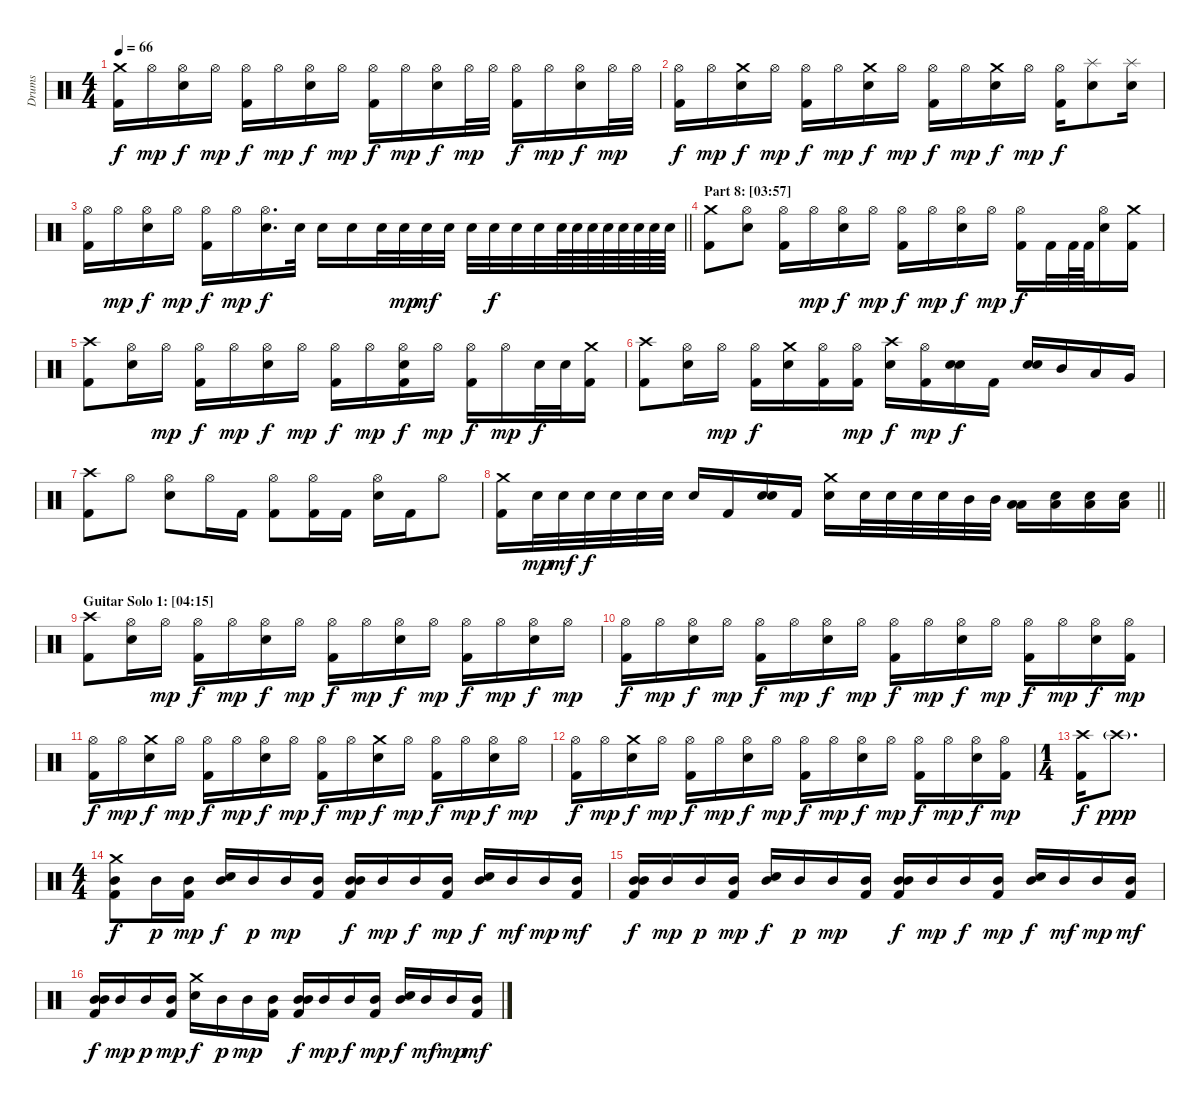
\track ("Drums" "Drums") {instrument percussion}
\staff {score}
\articulation defaults
\ts (4 4)
\tempo 66
\clef neutral
\ks c
("Crash medium (hit)" "Kick (hit) 2").16{dy f} "Hi-Hat (open)".16{dy mp} ("Hi-Hat (open)" "Electric Snare (hit)").16{dy f} "Hi-Hat (open)".16{dy mp} ("Hi-Hat (open)" "Kick (hit) 2").16{dy f} "Hi-Hat (open)".16{dy mp} ("Hi-Hat (open)" "Electric Snare (hit)").16{dy f} "Hi-Hat (open)".16{dy mp} ("Hi-Hat (open)" "Kick (hit) 2").16{dy f} "Hi-Hat (open)".16{dy mp} ("Hi-Hat (open)" "Electric Snare (hit)").16{dy f} "Hi-Hat (open)".32{dy mp} "Hi-Hat (open)".32 ("Hi-Hat (open)" "Kick (hit) 2").16{dy f} "Hi-Hat (open)".16{dy mp} ("Hi-Hat (open)" "Electric Snare (hit)").16{dy f} "Hi-Hat (open)".32{dy mp} "Hi-Hat (open)".32 |
("Hi-Hat (open)" "Kick (hit) 2").16{dy f} "Hi-Hat (open)".16{dy mp} ("Crash medium (hit)" "Electric Snare (hit)").16{dy f} "Hi-Hat (open)".16{dy mp} ("Hi-Hat (open)" "Kick (hit) 2").16{dy f} "Hi-Hat (open)".16{dy mp} ("Crash medium (hit)" "Electric Snare (hit)").16{dy f} "Hi-Hat (open)".16{dy mp} ("Hi-Hat (open)" "Kick (hit) 2").16{dy f} "Hi-Hat (open)".16{dy mp} ("Crash medium (hit)" "Electric Snare (hit)").16{dy f} "Hi-Hat (open)".16{dy mp} ("Hi-Hat (open)" "Kick (hit) 2").16{dy f} ("Splash (hit)" "Electric Snare (hit)").8 ("Splash (hit)" "Electric Snare (hit)").16 |
\barLineRight lightlight
("Hi-Hat (open)" "Kick (hit) 2").16 "Hi-Hat (open)".16{dy mp} ("Hi-Hat (open)" "Electric Snare (hit)").16{dy f} "Hi-Hat (open)".16{dy mp} ("Hi-Hat (open)" "Kick (hit) 2").16{dy f} "Hi-Hat (open)".16{dy mp} ("Hi-Hat (open)" "Electric Snare (hit)").16{d dy f} "Electric Snare (hit)".32 "Electric Snare (hit)".16 "Electric Snare (hit)".16 "Electric Snare (hit)".32 "Electric Snare (hit)".32{dy mp} "Electric Snare (hit)".32{dy mf} "Electric Snare (hit)".32 "Electric Snare (hit)".32 "Electric Snare (hit)".32{dy f} "Electric Snare (hit)".32 "Electric Snare (hit)".32 "Electric Snare (hit)".64 "Electric Snare (hit)".64 "Electric Snare (hit)".64 "Electric Snare (hit)".64 "Electric Snare (hit)".64 "Electric Snare (hit)".64 "Electric Snare (hit)".64 "Electric Snare (hit)".64 |
\section ("" "Part 8: [03:57]")
("Crash medium (hit)" "Kick (hit) 2").8 ("Hi-Hat (open)" "Electric Snare (hit)").8 ("Hi-Hat (open)" "Kick (hit) 2").16 "Hi-Hat (open)".16{dy mp} ("Hi-Hat (open)" "Electric Snare (hit)").16{dy f} "Hi-Hat (open)".16{dy mp} ("Hi-Hat (open)" "Kick (hit) 2").16{dy f} "Hi-Hat (open)".16{dy mp} ("Hi-Hat (open)" "Electric Snare (hit)").16{dy f} "Hi-Hat (open)".16{dy mp} ("Hi-Hat (open)" "Kick (hit) 2").16{dy f} "Kick (hit) 2".32 "Kick (hit) 2".64 "Kick (hit) 2".64 ("Hi-Hat (open)" "Electric Snare (hit)").16 ("Crash medium (hit)" "Kick (hit) 2").16 |
("Crash high (hit)" "Kick (hit) 2").8 ("Hi-Hat (open)" "Electric Snare (hit)").16 "Hi-Hat (open)".16{dy mp} ("Hi-Hat (open)" "Kick (hit) 2").16{dy f} "Hi-Hat (open)".16{dy mp} ("Hi-Hat (open)" "Electric Snare (hit)").16{dy f} "Hi-Hat (open)".16{dy mp} ("Hi-Hat (open)" "Kick (hit) 2").16{dy f} "Hi-Hat (open)".16{dy mp} ("Hi-Hat (open)" "Electric Snare (hit)" "Kick (hit) 2").16{dy f} "Hi-Hat (open)".16{dy mp} ("Hi-Hat (open)" "Kick (hit) 2").16{dy f} "Hi-Hat (open)".16{dy mp} "Electric Snare (hit)".32{dy f} "Electric Snare (hit)".32 ("Crash medium (hit)" "Kick (hit) 2").16 |
("Crash high (hit)" "Kick (hit) 2").8 ("Hi-Hat (open)" "Electric Snare (hit)").16 "Hi-Hat (open)".16{dy mp} ("Hi-Hat (open)" "Kick (hit) 2").16{dy f} ("Crash medium (hit)" "Electric Snare (hit)").16 ("Hi-Hat (open)" "Kick (hit) 2").16 ("Hi-Hat (open)" "Kick (hit) 2").16{dy mp} ("Crash high (hit)" "Electric Snare (hit)").16{dy f} ("Hi-Hat (open)" "Kick (hit) 2").16{dy mp} ("Electric Snare (hit)" "Electric Snare (hit)").16{bd 120 dy f} "Kick (hit) 2".16 ("Electric Snare (hit)" "Electric Snare (hit)").16{bd 120} "Mid Tom (hit)".16 "Low Tom (hit)".16 "Very Low Tom (hit)".16 |
("Crash high (hit)" "Kick (hit) 2").8 "Hi-Hat (open)".8 ("Hi-Hat (open)" "Electric Snare (hit)").8 "Hi-Hat (open)".16 "Kick (hit) 2".16 ("Hi-Hat (open)" "Kick (hit) 2").8 ("Hi-Hat (open)" "Kick (hit) 2").16 "Kick (hit) 2".16 ("Hi-Hat (open)" "Electric Snare (hit)").16 "Kick (hit) 2".16 "Hi-Hat (open)".8 |
\barLineRight lightlight
("Crash medium (hit)" "Kick (hit) 2").16 "Electric Snare (hit)".32{dy mp} "Electric Snare (hit)".32{dy mf} "Electric Snare (hit)".32{dy f} "Electric Snare (hit)".32 "Electric Snare (hit)".32 "Electric Snare (hit)".32 "Electric Snare (hit)".16 "Kick (hit) 2".16 ("Electric Snare (hit)" "Electric Snare (hit)").16{bd 120} "Kick (hit) 2".16 ("Crash medium (hit)" "Electric Snare (hit)").16 "Electric Snare (hit)".32 "Electric Snare (hit)".32 "Electric Snare (hit)".32 "Electric Snare (hit)".32 "Mid Tom (hit)".32 "Mid Tom (hit)".32 ("Low Tom (hit)" "Low Tom (hit)").16 ("Electric Snare (hit)" "Low Floor Tom (hit)").16 ("Electric Snare (hit)" "Low Floor Tom (hit)").16 ("Electric Snare (hit)" "Low Floor Tom (hit)").16 |
\section ("" "Guitar Solo 1: [04:15]")
("Crash high (hit)" "Kick (hit) 2").8 ("Hi-Hat (open)" "Electric Snare (hit)").16 "Hi-Hat (open)".16{dy mp} ("Hi-Hat (open)" "Kick (hit) 2").16{dy f} "Hi-Hat (open)".16{dy mp} ("Hi-Hat (open)" "Electric Snare (hit)").16{dy f} "Hi-Hat (open)".16{dy mp} ("Hi-Hat (open)" "Kick (hit) 2").16{dy f} "Hi-Hat (open)".16{dy mp} ("Hi-Hat (open)" "Electric Snare (hit)").16{dy f} "Hi-Hat (open)".16{dy mp} ("Hi-Hat (open)" "Kick (hit) 2").16{dy f} "Hi-Hat (open)".16{dy mp} ("Hi-Hat (open)" "Electric Snare (hit)").16{dy f} "Hi-Hat (open)".16{dy mp} |
("Hi-Hat (open)" "Kick (hit) 2").16{dy f} "Hi-Hat (open)".16{dy mp} ("Hi-Hat (open)" "Electric Snare (hit)").16{dy f} "Hi-Hat (open)".16{dy mp} ("Hi-Hat (open)" "Kick (hit) 2").16{dy f} "Hi-Hat (open)".16{dy mp} ("Hi-Hat (open)" "Electric Snare (hit)").16{dy f} "Hi-Hat (open)".16{dy mp} ("Hi-Hat (open)" "Kick (hit) 2").16{dy f} "Hi-Hat (open)".16{dy mp} ("Hi-Hat (open)" "Electric Snare (hit)").16{dy f} "Hi-Hat (open)".16{dy mp} ("Hi-Hat (open)" "Kick (hit) 2").16{dy f} "Hi-Hat (open)".16{dy mp} ("Hi-Hat (open)" "Electric Snare (hit)").16{dy f} ("Hi-Hat (open)" "Kick (hit) 2").16{dy mp} |
("Hi-Hat (open)" "Kick (hit) 2").16{dy f} "Hi-Hat (open)".16{dy mp} ("Crash medium (hit)" "Electric Snare (hit)").16{dy f} "Hi-Hat (open)".16{dy mp} ("Hi-Hat (open)" "Kick (hit) 2").16{dy f} "Hi-Hat (open)".16{dy mp} ("Hi-Hat (open)" "Electric Snare (hit)").16{dy f} "Hi-Hat (open)".16{dy mp} ("Hi-Hat (open)" "Kick (hit) 2").16{dy f} "Hi-Hat (open)".16{dy mp} ("Crash medium (hit)" "Electric Snare (hit)").16{dy f} "Hi-Hat (open)".16{dy mp} ("Hi-Hat (open)" "Kick (hit) 2").16{dy f} "Hi-Hat (open)".16{dy mp} ("Hi-Hat (open)" "Electric Snare (hit)").16{dy f} "Hi-Hat (open)".16{dy mp} |
("Hi-Hat (open)" "Kick (hit) 2").16{dy f} "Hi-Hat (open)".16{dy mp} ("Crash medium (hit)" "Electric Snare (hit)").16{dy f} "Hi-Hat (open)".16{dy mp} ("Hi-Hat (open)" "Kick (hit) 2").16{dy f} "Hi-Hat (open)".16{dy mp} ("Hi-Hat (open)" "Electric Snare (hit)").16{dy f} "Hi-Hat (open)".16{dy mp} ("Hi-Hat (open)" "Kick (hit) 2").16{dy f} "Hi-Hat (open)".16{dy mp} ("Hi-Hat (open)" "Electric Snare (hit)").16{dy f} "Hi-Hat (open)".16{dy mp} ("Hi-Hat (open)" "Kick (hit) 2").16{dy f} "Hi-Hat (open)".16{dy mp} ("Hi-Hat (open)" "Electric Snare (hit)").16{dy f} ("Hi-Hat (open)" "Kick (hit) 2").16{dy mp} |
\ts (1 4)
("Crash high (hit)" "Kick (hit) 2").16{dy f} "Crash high (hit)"{g}.8{d dy ppp} |
\ts (4 4)
("Crash medium (hit)" "Mid Tom (hit)" "Kick (hit) 2").8{dy f} "Mid Tom (hit)".16{dy p} ("Mid Tom (hit)" "Kick (hit) 2").16{dy mp} ("Mid Tom (hit)" "Electric Snare (hit)").16{dy f} "Mid Tom (hit)".16{dy p} "Mid Tom (hit)".16{dy mp} ("Mid Tom (hit)" "Kick (hit) 2").16 ("Mid Tom (hit)" "Mid Tom (hit)" "Kick (hit) 2").16{dy f} "Mid Tom (hit)".16{dy mp} "Mid Tom (hit)".16{dy f} ("Mid Tom (hit)" "Kick (hit) 2").16{dy mp} ("Mid Tom (hit)" "Electric Snare (hit)").16{dy f} "Mid Tom (hit)".16{dy mf} "Mid Tom (hit)".16{dy mp} ("Mid Tom (hit)" "Kick (hit) 2").16{dy mf} |
("Mid Tom (hit)" "Mid Tom (hit)" "Kick (hit) 2").16{dy f} "Mid Tom (hit)".16{dy mp} "Mid Tom (hit)".16{dy p} ("Mid Tom (hit)" "Kick (hit) 2").16{dy mp} ("Mid Tom (hit)" "Electric Snare (hit)").16{dy f} "Mid Tom (hit)".16{dy p} "Mid Tom (hit)".16{dy mp} ("Mid Tom (hit)" "Kick (hit) 2").16 ("Mid Tom (hit)" "Mid Tom (hit)" "Kick (hit) 2").16{dy f} "Mid Tom (hit)".16{dy mp} "Mid Tom (hit)".16{dy f} ("Mid Tom (hit)" "Kick (hit) 2").16{dy mp} ("Mid Tom (hit)" "Electric Snare (hit)").16{dy f} "Mid Tom (hit)".16{dy mf} "Mid Tom (hit)".16{dy mp} ("Mid Tom (hit)" "Kick (hit) 2").16{dy mf} |
("Mid Tom (hit)" "Mid Tom (hit)" "Kick (hit) 2").16{dy f} "Mid Tom (hit)".16{dy mp} "Mid Tom (hit)".16{dy p} ("Mid Tom (hit)" "Kick (hit) 2").16{dy mp} ("Crash medium (hit)" "Electric Snare (hit)").16{dy f} "Mid Tom (hit)".16{dy p} "Mid Tom (hit)".16{dy mp} ("Mid Tom (hit)" "Kick (hit) 2").16 ("Mid Tom (hit)" "Mid Tom (hit)" "Kick (hit) 2").16{dy f} "Mid Tom (hit)".16{dy mp} "Mid Tom (hit)".16{dy f} ("Mid Tom (hit)" "Kick (hit) 2").16{dy mp} ("Mid Tom (hit)" "Electric Snare (hit)").16{dy f} "Mid Tom (hit)".16{dy mf} "Mid Tom (hit)".16{dy mp} ("Mid Tom (hit)" "Kick (hit) 2").16{dy mf}
